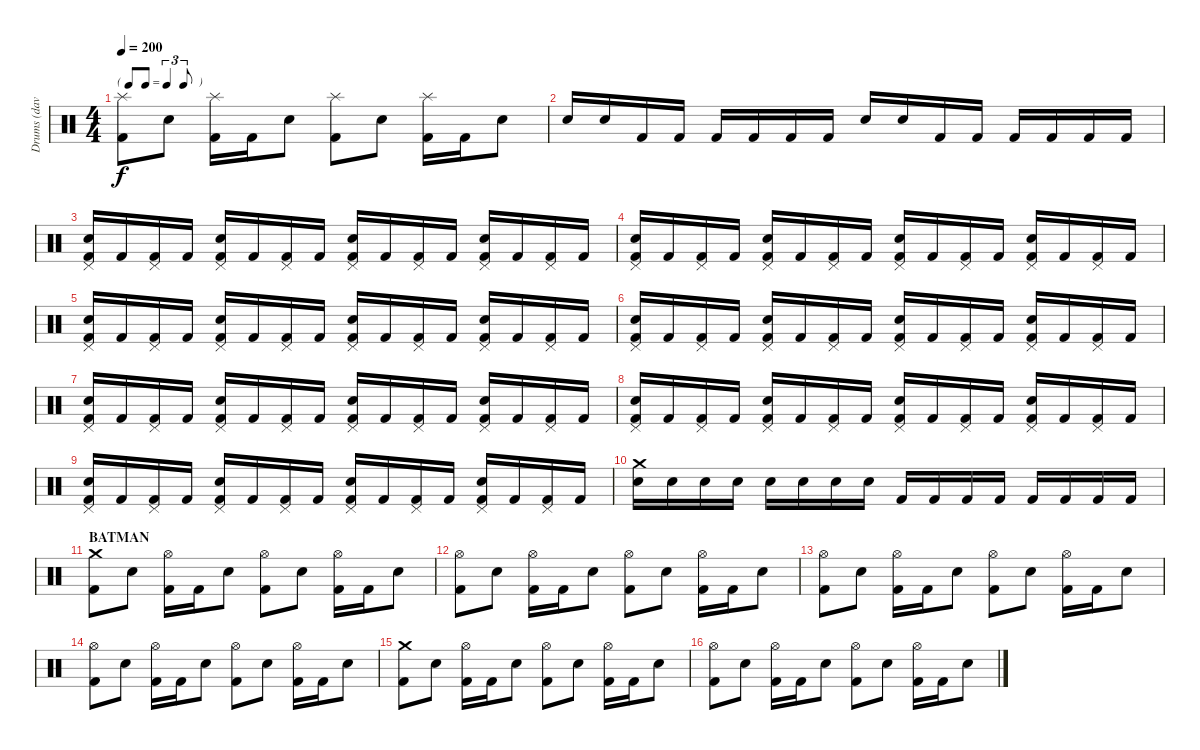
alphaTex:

\track ("Drums (dave)" "Drums (dav") {instrument percussion}
\staff {score}
\articulation defaults
\ts (4 4)
\tf triplet8th
\tempo 200
\clef neutral
\ks c
("Splash (hit)" "Kick (hit) 2").8{dy f} "Snare (hit) 2".8 ("Splash (hit)" "Kick (hit) 2").16 "Kick (hit) 2".16 "Snare (hit) 2".8 ("Splash (hit)" "Kick (hit) 2").8 "Snare (hit) 2".8 ("Splash (hit)" "Kick (hit) 2").16 "Kick (hit) 2".16 "Snare (hit) 2".8 |
"Snare (hit) 2".16 "Snare (hit) 2".16 "Kick (hit) 2".16 "Kick (hit) 2".16 "Kick (hit) 2".16 "Kick (hit) 2".16 "Kick (hit) 2".16 "Kick (hit) 2".16 "Snare (hit) 2".16 "Snare (hit) 2".16 "Kick (hit) 2".16 "Kick (hit) 2".16 "Kick (hit) 2".16 "Kick (hit) 2".16 "Kick (hit) 2".16 "Kick (hit) 2".16 |
("Pedal Hi-Hat (hit)" "Snare (hit) 2" "Kick (hit) 2").16 "Kick (hit) 2".16 ("Pedal Hi-Hat (hit)" "Kick (hit) 2").16 "Kick (hit) 2".16 ("Pedal Hi-Hat (hit)" "Snare (hit) 2" "Kick (hit) 2").16 "Kick (hit) 2".16 ("Pedal Hi-Hat (hit)" "Kick (hit) 2").16 "Kick (hit) 2".16 ("Pedal Hi-Hat (hit)" "Snare (hit) 2" "Kick (hit) 2").16 "Kick (hit) 2".16 ("Pedal Hi-Hat (hit)" "Kick (hit) 2").16 "Kick (hit) 2".16 ("Pedal Hi-Hat (hit)" "Snare (hit) 2" "Kick (hit) 2").16 "Kick (hit) 2".16 ("Pedal Hi-Hat (hit)" "Kick (hit) 2").16 "Kick (hit) 2".16 |
("Pedal Hi-Hat (hit)" "Snare (hit) 2" "Kick (hit) 2").16 "Kick (hit) 2".16 ("Pedal Hi-Hat (hit)" "Kick (hit) 2").16 "Kick (hit) 2".16 ("Pedal Hi-Hat (hit)" "Snare (hit) 2" "Kick (hit) 2").16 "Kick (hit) 2".16 ("Pedal Hi-Hat (hit)" "Kick (hit) 2").16 "Kick (hit) 2".16 ("Pedal Hi-Hat (hit)" "Snare (hit) 2" "Kick (hit) 2").16 "Kick (hit) 2".16 ("Pedal Hi-Hat (hit)" "Kick (hit) 2").16 "Kick (hit) 2".16 ("Pedal Hi-Hat (hit)" "Snare (hit) 2" "Kick (hit) 2").16 "Kick (hit) 2".16 ("Pedal Hi-Hat (hit)" "Kick (hit) 2").16 "Kick (hit) 2".16 |
("Pedal Hi-Hat (hit)" "Snare (hit) 2" "Kick (hit) 2").16 "Kick (hit) 2".16 ("Pedal Hi-Hat (hit)" "Kick (hit) 2").16 "Kick (hit) 2".16 ("Pedal Hi-Hat (hit)" "Snare (hit) 2" "Kick (hit) 2").16 "Kick (hit) 2".16 ("Pedal Hi-Hat (hit)" "Kick (hit) 2").16 "Kick (hit) 2".16 ("Pedal Hi-Hat (hit)" "Snare (hit) 2" "Kick (hit) 2").16 "Kick (hit) 2".16 ("Pedal Hi-Hat (hit)" "Kick (hit) 2").16 "Kick (hit) 2".16 ("Pedal Hi-Hat (hit)" "Snare (hit) 2" "Kick (hit) 2").16 "Kick (hit) 2".16 ("Pedal Hi-Hat (hit)" "Kick (hit) 2").16 "Kick (hit) 2".16 |
("Pedal Hi-Hat (hit)" "Snare (hit) 2" "Kick (hit) 2").16 "Kick (hit) 2".16 ("Pedal Hi-Hat (hit)" "Kick (hit) 2").16 "Kick (hit) 2".16 ("Pedal Hi-Hat (hit)" "Snare (hit) 2" "Kick (hit) 2").16 "Kick (hit) 2".16 ("Pedal Hi-Hat (hit)" "Kick (hit) 2").16 "Kick (hit) 2".16 ("Pedal Hi-Hat (hit)" "Snare (hit) 2" "Kick (hit) 2").16 "Kick (hit) 2".16 ("Pedal Hi-Hat (hit)" "Kick (hit) 2").16 "Kick (hit) 2".16 ("Pedal Hi-Hat (hit)" "Snare (hit) 2" "Kick (hit) 2").16 "Kick (hit) 2".16 ("Pedal Hi-Hat (hit)" "Kick (hit) 2").16 "Kick (hit) 2".16 |
("Pedal Hi-Hat (hit)" "Snare (hit) 2" "Kick (hit) 2").16 "Kick (hit) 2".16 ("Pedal Hi-Hat (hit)" "Kick (hit) 2").16 "Kick (hit) 2".16 ("Pedal Hi-Hat (hit)" "Snare (hit) 2" "Kick (hit) 2").16 "Kick (hit) 2".16 ("Pedal Hi-Hat (hit)" "Kick (hit) 2").16 "Kick (hit) 2".16 ("Pedal Hi-Hat (hit)" "Snare (hit) 2" "Kick (hit) 2").16 "Kick (hit) 2".16 ("Pedal Hi-Hat (hit)" "Kick (hit) 2").16 "Kick (hit) 2".16 ("Pedal Hi-Hat (hit)" "Snare (hit) 2" "Kick (hit) 2").16 "Kick (hit) 2".16 ("Pedal Hi-Hat (hit)" "Kick (hit) 2").16 "Kick (hit) 2".16 |
("Pedal Hi-Hat (hit)" "Snare (hit) 2" "Kick (hit) 2").16 "Kick (hit) 2".16 ("Pedal Hi-Hat (hit)" "Kick (hit) 2").16 "Kick (hit) 2".16 ("Pedal Hi-Hat (hit)" "Snare (hit) 2" "Kick (hit) 2").16 "Kick (hit) 2".16 ("Pedal Hi-Hat (hit)" "Kick (hit) 2").16 "Kick (hit) 2".16 ("Pedal Hi-Hat (hit)" "Snare (hit) 2" "Kick (hit) 2").16 "Kick (hit) 2".16 ("Pedal Hi-Hat (hit)" "Kick (hit) 2").16 "Kick (hit) 2".16 ("Pedal Hi-Hat (hit)" "Snare (hit) 2" "Kick (hit) 2").16 "Kick (hit) 2".16 ("Pedal Hi-Hat (hit)" "Kick (hit) 2").16 "Kick (hit) 2".16 |
("Pedal Hi-Hat (hit)" "Snare (hit) 2" "Kick (hit) 2").16 "Kick (hit) 2".16 ("Pedal Hi-Hat (hit)" "Kick (hit) 2").16 "Kick (hit) 2".16 ("Pedal Hi-Hat (hit)" "Snare (hit) 2" "Kick (hit) 2").16 "Kick (hit) 2".16 ("Pedal Hi-Hat (hit)" "Kick (hit) 2").16 "Kick (hit) 2".16 ("Pedal Hi-Hat (hit)" "Snare (hit) 2" "Kick (hit) 2").16 "Kick (hit) 2".16 ("Pedal Hi-Hat (hit)" "Kick (hit) 2").16 "Kick (hit) 2".16 ("Pedal Hi-Hat (hit)" "Snare (hit) 2" "Kick (hit) 2").16 "Kick (hit) 2".16 ("Pedal Hi-Hat (hit)" "Kick (hit) 2").16 "Kick (hit) 2".16 |
("Crash medium (hit)" "Snare (hit) 2").16 "Snare (hit) 2".16 "Snare (hit) 2".16 "Snare (hit) 2".16 "Snare (hit) 2".16 "Snare (hit) 2".16 "Snare (hit) 2".16 "Snare (hit) 2".16 "Kick (hit) 2".16 "Kick (hit) 2".16 "Kick (hit) 2".16 "Kick (hit) 2".16 "Kick (hit) 2".16 "Kick (hit) 2".16 "Kick (hit) 2".16 "Kick (hit) 2".16 |
\section ("" "BATMAN")
("Crash medium (hit)" "Kick (hit) 2").8 "Snare (hit) 2".8 ("Hi-Hat (open)" "Kick (hit) 2").16 "Kick (hit) 2".16 "Snare (hit) 2".8 ("Hi-Hat (open)" "Kick (hit) 2").8 "Snare (hit) 2".8 ("Hi-Hat (open)" "Kick (hit) 2").16 "Kick (hit) 2".16 "Snare (hit) 2".8 |
("Hi-Hat (open)" "Kick (hit) 2").8 "Snare (hit) 2".8 ("Hi-Hat (open)" "Kick (hit) 2").16 "Kick (hit) 2".16 "Snare (hit) 2".8 ("Hi-Hat (open)" "Kick (hit) 2").8 "Snare (hit) 2".8 ("Hi-Hat (open)" "Kick (hit) 2").16 "Kick (hit) 2".16 "Snare (hit) 2".8 |
("Hi-Hat (open)" "Kick (hit) 2").8 "Snare (hit) 2".8 ("Hi-Hat (open)" "Kick (hit) 2").16 "Kick (hit) 2".16 "Snare (hit) 2".8 ("Hi-Hat (open)" "Kick (hit) 2").8 "Snare (hit) 2".8 ("Hi-Hat (open)" "Kick (hit) 2").16 "Kick (hit) 2".16 "Snare (hit) 2".8 |
("Hi-Hat (open)" "Kick (hit) 2").8 "Snare (hit) 2".8 ("Hi-Hat (open)" "Kick (hit) 2").16 "Kick (hit) 2".16 "Snare (hit) 2".8 ("Hi-Hat (open)" "Kick (hit) 2").8 "Snare (hit) 2".8 ("Hi-Hat (open)" "Kick (hit) 2").16 "Kick (hit) 2".16 "Snare (hit) 2".8 |
("Crash medium (hit)" "Kick (hit) 2").8 "Snare (hit) 2".8 ("Hi-Hat (open)" "Kick (hit) 2").16 "Kick (hit) 2".16 "Snare (hit) 2".8 ("Hi-Hat (open)" "Kick (hit) 2").8 "Snare (hit) 2".8 ("Hi-Hat (open)" "Kick (hit) 2").16 "Kick (hit) 2".16 "Snare (hit) 2".8 |
("Hi-Hat (open)" "Kick (hit) 2").8 "Snare (hit) 2".8 ("Hi-Hat (open)" "Kick (hit) 2").16 "Kick (hit) 2".16 "Snare (hit) 2".8 ("Hi-Hat (open)" "Kick (hit) 2").8 "Snare (hit) 2".8 ("Hi-Hat (open)" "Kick (hit) 2").16 "Kick (hit) 2".16 "Snare (hit) 2".8
